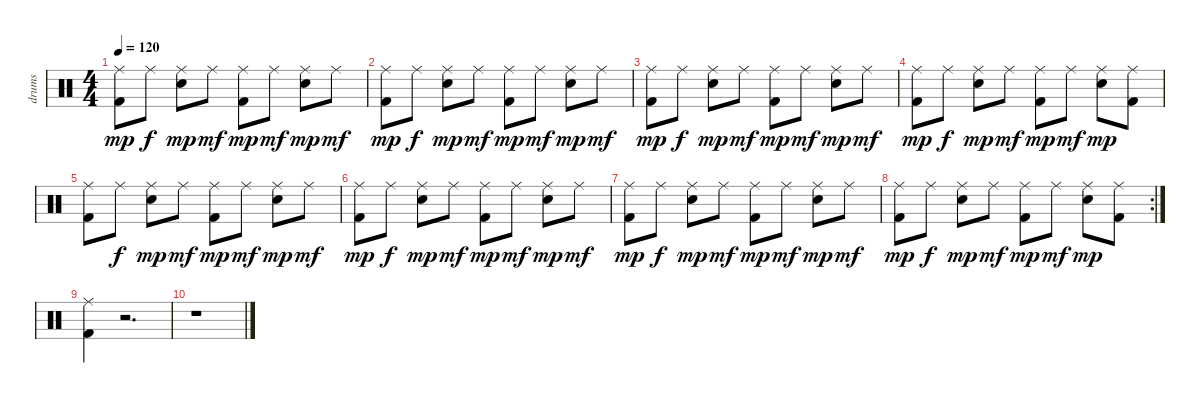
\track ("drums" "drums") {instrument percussion}
\staff {score}
\articulation defaults
\ts (4 4)
\tempo 120
\clef neutral
\ks c
("Ride (middle)" "Kick (hit) 2").8{dy mp} "Ride (middle)".8{dy f} ("Ride (middle)" "Snare (hit) 2").8{dy mp} "Ride (middle)".8{dy mf} ("Ride (middle)" "Kick (hit) 2").8{dy mp} "Ride (middle)".8{dy mf} ("Ride (middle)" "Snare (hit) 2").8{dy mp} "Ride (middle)".8{dy mf} |
("Ride (middle)" "Kick (hit) 2").8{dy mp} "Ride (middle)".8{dy f} ("Ride (middle)" "Snare (hit) 2").8{dy mp} "Ride (middle)".8{dy mf} ("Ride (middle)" "Kick (hit) 2").8{dy mp} "Ride (middle)".8{dy mf} ("Ride (middle)" "Snare (hit) 2").8{dy mp} "Ride (middle)".8{dy mf} |
("Ride (middle)" "Kick (hit) 2").8{dy mp} "Ride (middle)".8{dy f} ("Ride (middle)" "Snare (hit) 2").8{dy mp} "Ride (middle)".8{dy mf} ("Ride (middle)" "Kick (hit) 2").8{dy mp} "Ride (middle)".8{dy mf} ("Ride (middle)" "Snare (hit) 2").8{dy mp} "Ride (middle)".8{dy mf} |
("Ride (middle)" "Kick (hit) 2").8{dy mp} "Ride (middle)".8{dy f} ("Ride (middle)" "Snare (hit) 2").8{dy mp} "Ride (middle)".8{dy mf} ("Ride (middle)" "Kick (hit) 2").8{dy mp} "Ride (middle)".8{dy mf} ("Ride (middle)" "Snare (hit) 2").8{dy mp} ("Ride (middle)" "Kick (hit) 2").8 |
("Ride (middle)" "Kick (hit) 2").8 "Ride (middle)".8{dy f} ("Ride (middle)" "Snare (hit) 2").8{dy mp} "Ride (middle)".8{dy mf} ("Ride (middle)" "Kick (hit) 2").8{dy mp} "Ride (middle)".8{dy mf} ("Ride (middle)" "Snare (hit) 2").8{dy mp} "Ride (middle)".8{dy mf} |
("Ride (middle)" "Kick (hit) 2").8{dy mp} "Ride (middle)".8{dy f} ("Ride (middle)" "Snare (hit) 2").8{dy mp} "Ride (middle)".8{dy mf} ("Ride (middle)" "Kick (hit) 2").8{dy mp} "Ride (middle)".8{dy mf} ("Ride (middle)" "Snare (hit) 2").8{dy mp} "Ride (middle)".8{dy mf} |
("Ride (middle)" "Kick (hit) 2").8{dy mp} "Ride (middle)".8{dy f} ("Ride (middle)" "Snare (hit) 2").8{dy mp} "Ride (middle)".8{dy mf} ("Ride (middle)" "Kick (hit) 2").8{dy mp} "Ride (middle)".8{dy mf} ("Ride (middle)" "Snare (hit) 2").8{dy mp} "Ride (middle)".8{dy mf} |
\rc 2
("Ride (middle)" "Kick (hit) 2").8{dy mp} "Ride (middle)".8{dy f} ("Ride (middle)" "Snare (hit) 2").8{dy mp} "Ride (middle)".8{dy mf} ("Ride (middle)" "Kick (hit) 2").8{dy mp} "Ride (middle)".8{dy mf} ("Ride (middle)" "Snare (hit) 2").8{dy mp} ("Ride (middle)" "Kick (hit) 2").8 |
("Ride (middle)" "Kick (hit) 2").4 r.2{d} |
r.1
